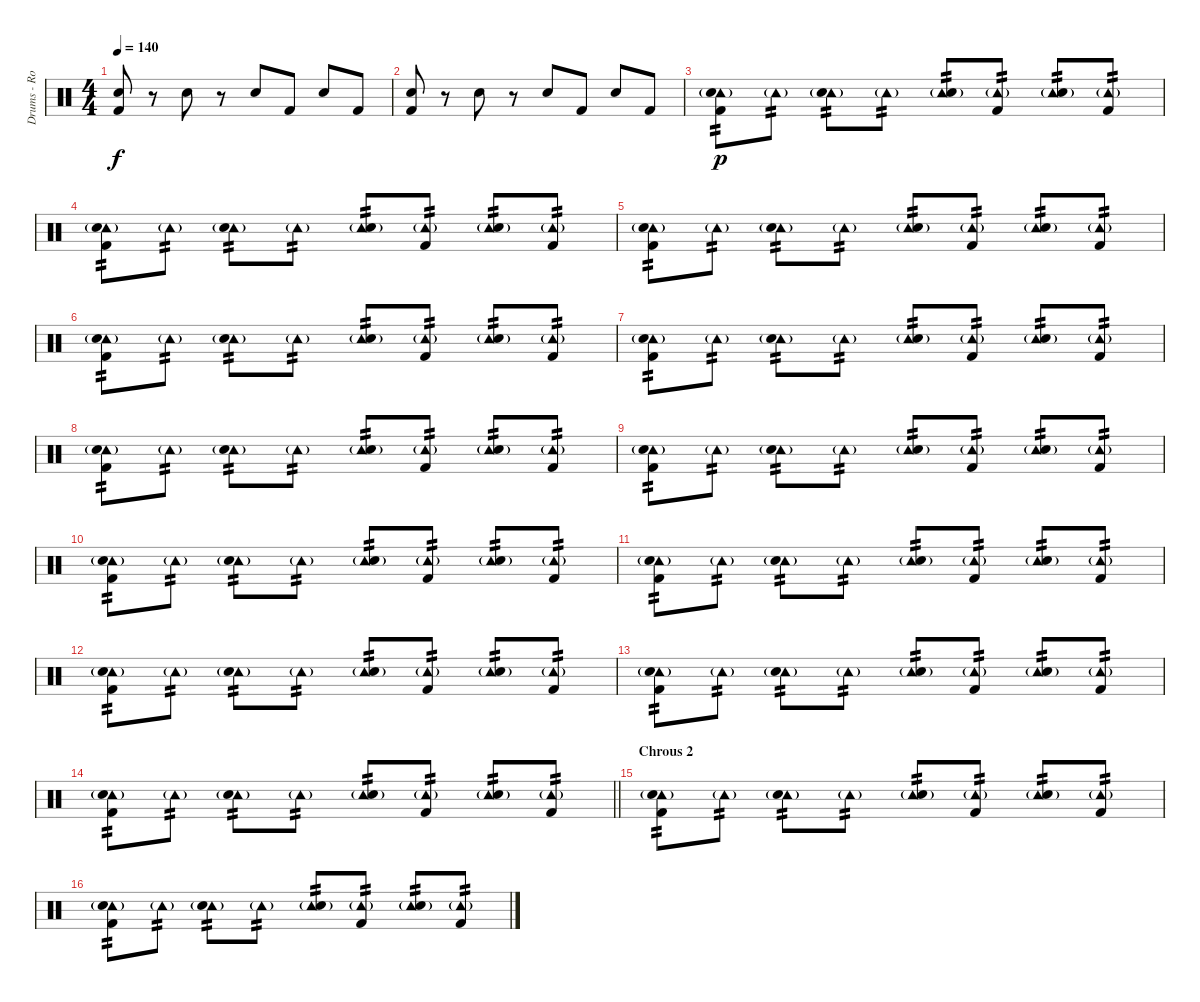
\track ("Drums - Rob Bourdon" "Drums - Ro") {instrument percussion}
\staff {score}
\articulation defaults
\ts (4 4)
\tempo 140
\clef neutral
\ks c
("Electric Snare (hit)" "Kick (hit) 2").8{dy f} r.8 "Electric Snare (hit)".8 r.8 "Electric Snare (hit)".8 "Kick (hit) 2".8 "Electric Snare (hit)".8 "Kick (hit) 2".8 |
("Electric Snare (hit)" "Kick (hit) 2").8 r.8 "Electric Snare (hit)".8 r.8 "Electric Snare (hit)".8 "Kick (hit) 2".8 "Electric Snare (hit)".8 "Kick (hit) 2".8 |
("Tambourine (hit)"{g} "Electric Snare (hit)" "Kick (hit) 2").8{tp 2 dy p} "Tambourine (hit)"{g}.8{tp 2} ("Tambourine (hit)"{g} "Electric Snare (hit)").8{tp 2} "Tambourine (hit)"{g}.8{tp 2} ("Tambourine (hit)"{g} "Electric Snare (hit)").8{tp 2} ("Tambourine (hit)"{g} "Kick (hit) 2").8{tp 2} ("Tambourine (hit)"{g} "Electric Snare (hit)").8{tp 2} ("Tambourine (hit)"{g} "Kick (hit) 2").8{tp 2} |
("Tambourine (hit)"{g} "Electric Snare (hit)" "Kick (hit) 2").8{tp 2} "Tambourine (hit)"{g}.8{tp 2} ("Tambourine (hit)"{g} "Electric Snare (hit)").8{tp 2} "Tambourine (hit)"{g}.8{tp 2} ("Tambourine (hit)"{g} "Electric Snare (hit)").8{tp 2} ("Tambourine (hit)"{g} "Kick (hit) 2").8{tp 2} ("Tambourine (hit)"{g} "Electric Snare (hit)").8{tp 2} ("Tambourine (hit)"{g} "Kick (hit) 2").8{tp 2} |
("Tambourine (hit)"{g} "Electric Snare (hit)" "Kick (hit) 2").8{tp 2} "Tambourine (hit)"{g}.8{tp 2} ("Tambourine (hit)"{g} "Electric Snare (hit)").8{tp 2} "Tambourine (hit)"{g}.8{tp 2} ("Tambourine (hit)"{g} "Electric Snare (hit)").8{tp 2} ("Tambourine (hit)"{g} "Kick (hit) 2").8{tp 2} ("Tambourine (hit)"{g} "Electric Snare (hit)").8{tp 2} ("Tambourine (hit)"{g} "Kick (hit) 2").8{tp 2} |
("Tambourine (hit)"{g} "Electric Snare (hit)" "Kick (hit) 2").8{tp 2} "Tambourine (hit)"{g}.8{tp 2} ("Tambourine (hit)"{g} "Electric Snare (hit)").8{tp 2} "Tambourine (hit)"{g}.8{tp 2} ("Tambourine (hit)"{g} "Electric Snare (hit)").8{tp 2} ("Tambourine (hit)"{g} "Kick (hit) 2").8{tp 2} ("Tambourine (hit)"{g} "Electric Snare (hit)").8{tp 2} ("Tambourine (hit)"{g} "Kick (hit) 2").8{tp 2} |
("Tambourine (hit)"{g} "Electric Snare (hit)" "Kick (hit) 2").8{tp 2} "Tambourine (hit)"{g}.8{tp 2} ("Tambourine (hit)"{g} "Electric Snare (hit)").8{tp 2} "Tambourine (hit)"{g}.8{tp 2} ("Tambourine (hit)"{g} "Electric Snare (hit)").8{tp 2} ("Tambourine (hit)"{g} "Kick (hit) 2").8{tp 2} ("Tambourine (hit)"{g} "Electric Snare (hit)").8{tp 2} ("Tambourine (hit)"{g} "Kick (hit) 2").8{tp 2} |
("Tambourine (hit)"{g} "Electric Snare (hit)" "Kick (hit) 2").8{tp 2} "Tambourine (hit)"{g}.8{tp 2} ("Tambourine (hit)"{g} "Electric Snare (hit)").8{tp 2} "Tambourine (hit)"{g}.8{tp 2} ("Tambourine (hit)"{g} "Electric Snare (hit)").8{tp 2} ("Tambourine (hit)"{g} "Kick (hit) 2").8{tp 2} ("Tambourine (hit)"{g} "Electric Snare (hit)").8{tp 2} ("Tambourine (hit)"{g} "Kick (hit) 2").8{tp 2} |
("Tambourine (hit)"{g} "Electric Snare (hit)" "Kick (hit) 2").8{tp 2} "Tambourine (hit)"{g}.8{tp 2} ("Tambourine (hit)"{g} "Electric Snare (hit)").8{tp 2} "Tambourine (hit)"{g}.8{tp 2} ("Tambourine (hit)"{g} "Electric Snare (hit)").8{tp 2} ("Tambourine (hit)"{g} "Kick (hit) 2").8{tp 2} ("Tambourine (hit)"{g} "Electric Snare (hit)").8{tp 2} ("Tambourine (hit)"{g} "Kick (hit) 2").8{tp 2} |
("Tambourine (hit)"{g} "Electric Snare (hit)" "Kick (hit) 2").8{tp 2} "Tambourine (hit)"{g}.8{tp 2} ("Tambourine (hit)"{g} "Electric Snare (hit)").8{tp 2} "Tambourine (hit)"{g}.8{tp 2} ("Tambourine (hit)"{g} "Electric Snare (hit)").8{tp 2} ("Tambourine (hit)"{g} "Kick (hit) 2").8{tp 2} ("Tambourine (hit)"{g} "Electric Snare (hit)").8{tp 2} ("Tambourine (hit)"{g} "Kick (hit) 2").8{tp 2} |
("Tambourine (hit)"{g} "Electric Snare (hit)" "Kick (hit) 2").8{tp 2} "Tambourine (hit)"{g}.8{tp 2} ("Tambourine (hit)"{g} "Electric Snare (hit)").8{tp 2} "Tambourine (hit)"{g}.8{tp 2} ("Tambourine (hit)"{g} "Electric Snare (hit)").8{tp 2} ("Tambourine (hit)"{g} "Kick (hit) 2").8{tp 2} ("Tambourine (hit)"{g} "Electric Snare (hit)").8{tp 2} ("Tambourine (hit)"{g} "Kick (hit) 2").8{tp 2} |
("Tambourine (hit)"{g} "Electric Snare (hit)" "Kick (hit) 2").8{tp 2} "Tambourine (hit)"{g}.8{tp 2} ("Tambourine (hit)"{g} "Electric Snare (hit)").8{tp 2} "Tambourine (hit)"{g}.8{tp 2} ("Tambourine (hit)"{g} "Electric Snare (hit)").8{tp 2} ("Tambourine (hit)"{g} "Kick (hit) 2").8{tp 2} ("Tambourine (hit)"{g} "Electric Snare (hit)").8{tp 2} ("Tambourine (hit)"{g} "Kick (hit) 2").8{tp 2} |
("Tambourine (hit)"{g} "Electric Snare (hit)" "Kick (hit) 2").8{tp 2} "Tambourine (hit)"{g}.8{tp 2} ("Tambourine (hit)"{g} "Electric Snare (hit)").8{tp 2} "Tambourine (hit)"{g}.8{tp 2} ("Tambourine (hit)"{g} "Electric Snare (hit)").8{tp 2} ("Tambourine (hit)"{g} "Kick (hit) 2").8{tp 2} ("Tambourine (hit)"{g} "Electric Snare (hit)").8{tp 2} ("Tambourine (hit)"{g} "Kick (hit) 2").8{tp 2} |
\barLineRight lightlight
("Tambourine (hit)"{g} "Electric Snare (hit)" "Kick (hit) 2").8{tp 2} "Tambourine (hit)"{g}.8{tp 2} ("Tambourine (hit)"{g} "Electric Snare (hit)").8{tp 2} "Tambourine (hit)"{g}.8{tp 2} ("Tambourine (hit)"{g} "Electric Snare (hit)").8{tp 2} ("Tambourine (hit)"{g} "Kick (hit) 2").8{tp 2} ("Tambourine (hit)"{g} "Electric Snare (hit)").8{tp 2} ("Tambourine (hit)"{g} "Kick (hit) 2").8{tp 2} |
\section ("" "Chrous 2")
("Tambourine (hit)"{g} "Electric Snare (hit)" "Kick (hit) 2").8{tp 2} "Tambourine (hit)"{g}.8{tp 2} ("Tambourine (hit)"{g} "Electric Snare (hit)").8{tp 2} "Tambourine (hit)"{g}.8{tp 2} ("Tambourine (hit)"{g} "Electric Snare (hit)").8{tp 2} ("Tambourine (hit)"{g} "Kick (hit) 2").8{tp 2} ("Tambourine (hit)"{g} "Electric Snare (hit)").8{tp 2} ("Tambourine (hit)"{g} "Kick (hit) 2").8{tp 2} |
("Tambourine (hit)"{g} "Electric Snare (hit)" "Kick (hit) 2").8{tp 2} "Tambourine (hit)"{g}.8{tp 2} ("Tambourine (hit)"{g} "Electric Snare (hit)").8{tp 2} "Tambourine (hit)"{g}.8{tp 2} ("Tambourine (hit)"{g} "Electric Snare (hit)").8{tp 2} ("Tambourine (hit)"{g} "Kick (hit) 2").8{tp 2} ("Tambourine (hit)"{g} "Electric Snare (hit)").8{tp 2} ("Tambourine (hit)"{g} "Kick (hit) 2").8{tp 2}
